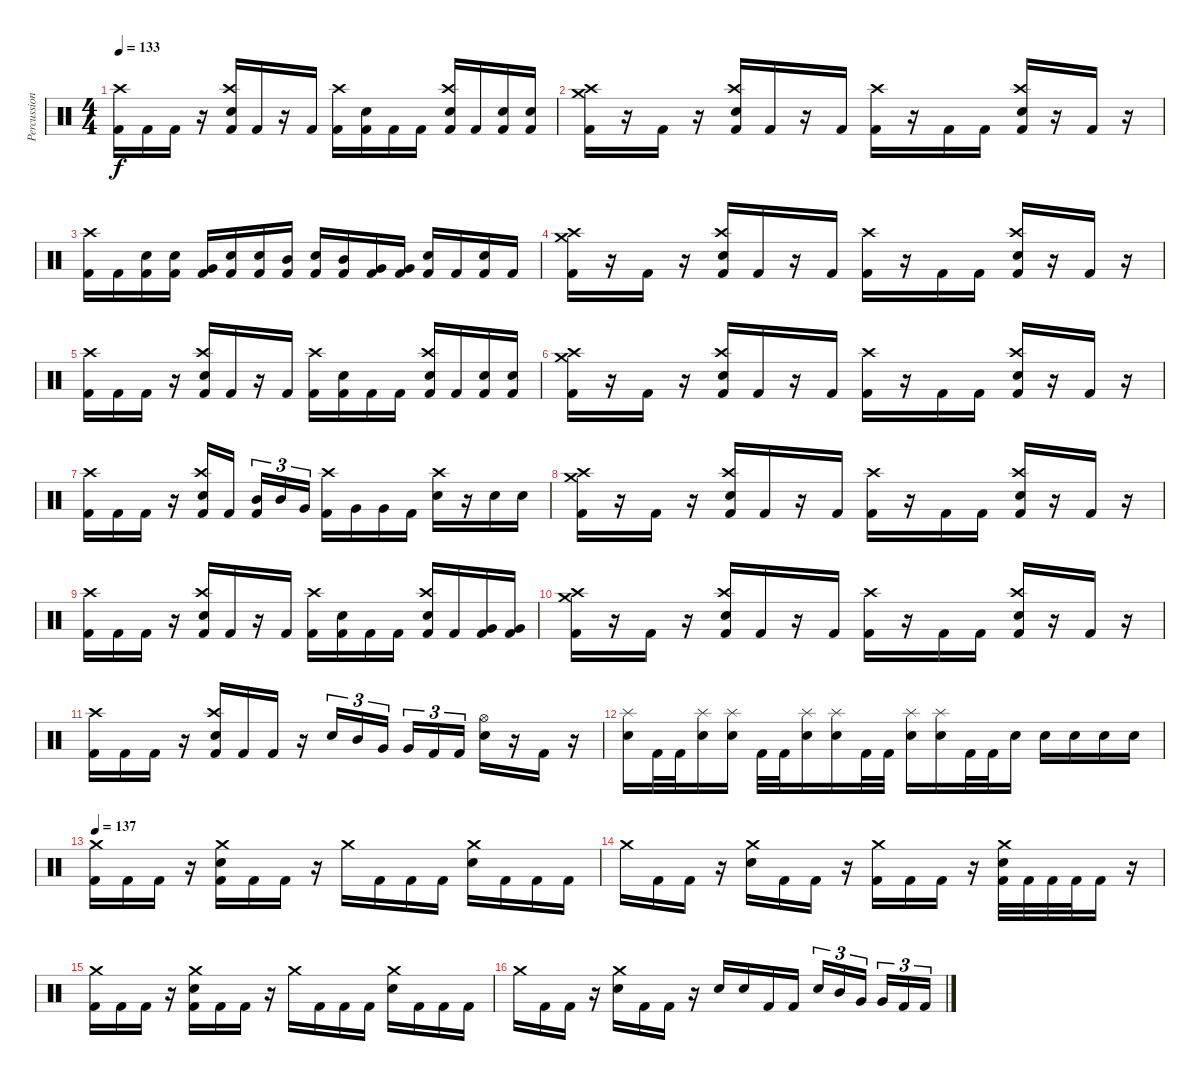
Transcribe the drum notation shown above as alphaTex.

\track ("Percussion" "Percussion") {instrument percussion}
\staff {score}
\articulation defaults
\ts (4 4)
\tempo 133
\clef neutral
\ks c
("Kick (hit) 2" "Crash high (hit)").16{dy f} "Kick (hit) 2".16 "Kick (hit) 2".16 r.16 ("Kick (hit) 2" "Electric Snare (hit)" "Crash high (hit)").16 "Kick (hit) 2".16 r.16 "Kick (hit) 2".16 ("Kick (hit) 2" "Crash high (hit)").16 ("Kick (hit) 2" "Electric Snare (hit)").16 "Kick (hit) 2".16 "Kick (hit) 2".16 ("Kick (hit) 2" "Electric Snare (hit)" "Crash high (hit)").16 "Kick (hit) 2".16 ("Kick (hit) 2" "Electric Snare (hit)").16 ("Kick (hit) 2" "Electric Snare (hit)").16 |
("Kick (hit) 2" "Crash medium (hit)" "Crash high (hit)").16 r.16 "Kick (hit) 2".16 r.16 ("Kick (hit) 2" "Electric Snare (hit)" "Crash high (hit)").16 "Kick (hit) 2".16 r.16 "Kick (hit) 2".16 ("Kick (hit) 2" "Crash high (hit)").16 r.16 "Kick (hit) 2".16 "Kick (hit) 2".16 ("Kick (hit) 2" "Electric Snare (hit)" "Crash high (hit)").16 r.16 "Kick (hit) 2".16 r.16 |
("Kick (hit) 2" "Crash high (hit)").16 "Kick (hit) 2".16 ("Kick (hit) 2" "Electric Snare (hit)").16 ("Kick (hit) 2" "Electric Snare (hit)").16 ("Kick (hit) 2" "Very Low Tom (hit)").16 ("Kick (hit) 2" "Electric Snare (hit)").16 ("Kick (hit) 2" "Electric Snare (hit)").16 ("Kick (hit) 2" "Mid Tom (hit)").16 ("Kick (hit) 2" "Electric Snare (hit)").16 ("Kick (hit) 2" "Mid Tom (hit)").16 ("Kick (hit) 2" "Very Low Tom (hit)").16 ("Kick (hit) 2" "Very Low Tom (hit)").16 ("Kick (hit) 2" "Electric Snare (hit)").16 "Kick (hit) 2".16 ("Kick (hit) 2" "Electric Snare (hit)").16 "Kick (hit) 2".16 |
("Kick (hit) 2" "Crash medium (hit)" "Crash high (hit)").16 r.16 "Kick (hit) 2".16 r.16 ("Kick (hit) 2" "Electric Snare (hit)" "Crash high (hit)").16 "Kick (hit) 2".16 r.16 "Kick (hit) 2".16 ("Kick (hit) 2" "Crash high (hit)").16 r.16 "Kick (hit) 2".16 "Kick (hit) 2".16 ("Kick (hit) 2" "Electric Snare (hit)" "Crash high (hit)").16 r.16 "Kick (hit) 2".16 r.16 |
("Kick (hit) 2" "Crash high (hit)").16 "Kick (hit) 2".16 "Kick (hit) 2".16 r.16 ("Kick (hit) 2" "Electric Snare (hit)" "Crash high (hit)").16 "Kick (hit) 2".16 r.16 "Kick (hit) 2".16 ("Kick (hit) 2" "Crash high (hit)").16 ("Kick (hit) 2" "Electric Snare (hit)").16 "Kick (hit) 2".16 "Kick (hit) 2".16 ("Kick (hit) 2" "Electric Snare (hit)" "Crash high (hit)").16 "Kick (hit) 2".16 ("Kick (hit) 2" "Electric Snare (hit)").16 ("Kick (hit) 2" "Electric Snare (hit)").16 |
("Kick (hit) 2" "Crash medium (hit)" "Crash high (hit)").16 r.16 "Kick (hit) 2".16 r.16 ("Kick (hit) 2" "Electric Snare (hit)" "Crash high (hit)").16 "Kick (hit) 2".16 r.16 "Kick (hit) 2".16 ("Kick (hit) 2" "Crash high (hit)").16 r.16 "Kick (hit) 2".16 "Kick (hit) 2".16 ("Kick (hit) 2" "Electric Snare (hit)" "Crash high (hit)").16 r.16 "Kick (hit) 2".16 r.16 |
("Kick (hit) 2" "Crash high (hit)").16 "Kick (hit) 2".16 "Kick (hit) 2".16 r.16 ("Kick (hit) 2" "Electric Snare (hit)" "Crash high (hit)").16 "Kick (hit) 2".16{beam splitsecondary} ("Kick (hit) 2" "Mid Tom (hit)").16{tu (3 2)} "Mid Tom (hit)".16{tu (3 2)} "Very Low Tom (hit)".16{tu (3 2)} ("Kick (hit) 2" "Crash high (hit)").16 "Very Low Tom (hit)".16 "Very Low Tom (hit)".16 "Kick (hit) 2".16 ("Electric Snare (hit)" "Crash high (hit)").16 r.16 "Electric Snare (hit)".16 "Electric Snare (hit)".16 |
("Kick (hit) 2" "Crash medium (hit)" "Crash high (hit)").16 r.16 "Kick (hit) 2".16 r.16 ("Kick (hit) 2" "Electric Snare (hit)" "Crash high (hit)").16 "Kick (hit) 2".16 r.16 "Kick (hit) 2".16 ("Kick (hit) 2" "Crash high (hit)").16 r.16 "Kick (hit) 2".16 "Kick (hit) 2".16 ("Kick (hit) 2" "Electric Snare (hit)" "Crash high (hit)").16 r.16 "Kick (hit) 2".16 r.16 |
("Kick (hit) 2" "Crash high (hit)").16 "Kick (hit) 2".16 "Kick (hit) 2".16 r.16 ("Kick (hit) 2" "Electric Snare (hit)" "Crash high (hit)").16 "Kick (hit) 2".16 r.16 "Kick (hit) 2".16 ("Kick (hit) 2" "Crash high (hit)").16 ("Kick (hit) 2" "Electric Snare (hit)").16 "Kick (hit) 2".16 "Kick (hit) 2".16 ("Kick (hit) 2" "Electric Snare (hit)" "Crash high (hit)").16 "Kick (hit) 2".16 ("Kick (hit) 2" "Very Low Tom (hit)").16 ("Kick (hit) 2" "Very Low Tom (hit)").16 |
("Kick (hit) 2" "Crash medium (hit)" "Crash high (hit)").16 r.16 "Kick (hit) 2".16 r.16 ("Kick (hit) 2" "Electric Snare (hit)" "Crash high (hit)").16 "Kick (hit) 2".16 r.16 "Kick (hit) 2".16 ("Kick (hit) 2" "Crash high (hit)").16 r.16 "Kick (hit) 2".16 "Kick (hit) 2".16 ("Kick (hit) 2" "Electric Snare (hit)" "Crash high (hit)").16 r.16 "Kick (hit) 2".16 r.16 |
("Kick (hit) 2" "Crash high (hit)").16 "Kick (hit) 2".16 "Kick (hit) 2".16 r.16 ("Kick (hit) 2" "Electric Snare (hit)" "Crash high (hit)").16 "Kick (hit) 2".16 "Kick (hit) 2".16 r.16 "Electric Snare (hit)".16{tu (3 2)} "Mid Tom (hit)".16{tu (3 2)} "Very Low Tom (hit)".16{tu (3 2) beam splitsecondary} "Very Low Tom (hit)".16{tu (3 2)} "Kick (hit) 2".16{tu (3 2)} "Kick (hit) 2".16{tu (3 2)} ("Electric Snare (hit)" "Hi-Hat (open)").16 r.16 "Kick (hit) 2".16 r.16 |
("Electric Snare (hit)" "Splash (hit)").16 "Kick (hit) 2".32 "Kick (hit) 2".32 ("Electric Snare (hit)" "Splash (hit)").16 ("Electric Snare (hit)" "Splash (hit)").16 "Kick (hit) 2".32 "Kick (hit) 2".32 ("Electric Snare (hit)" "Splash (hit)").16 ("Electric Snare (hit)" "Splash (hit)").16 "Kick (hit) 2".32 "Kick (hit) 2".32 ("Electric Snare (hit)" "Splash (hit)").16 ("Electric Snare (hit)" "Splash (hit)").16 "Kick (hit) 2".32 "Kick (hit) 2".32 "Electric Snare (hit)".16 "Electric Snare (hit)".16 "Electric Snare (hit)".16 "Electric Snare (hit)".16 "Electric Snare (hit)".16 |
\tempo 137
("Kick (hit) 2" "Crash medium (hit)").16 "Kick (hit) 2".16 "Kick (hit) 2".16 r.16 ("Kick (hit) 2" "Electric Snare (hit)" "Crash medium (hit)").16 "Kick (hit) 2".16 "Kick (hit) 2".16 r.16 "Crash medium (hit)".16 "Kick (hit) 2".16 "Kick (hit) 2".16 "Kick (hit) 2".16 ("Electric Snare (hit)" "Crash medium (hit)").16 "Kick (hit) 2".16 "Kick (hit) 2".16 "Kick (hit) 2".16 |
"Crash medium (hit)".16 "Kick (hit) 2".16 "Kick (hit) 2".16 r.16 ("Electric Snare (hit)" "Crash medium (hit)").16 "Kick (hit) 2".16 "Kick (hit) 2".16 r.16 ("Kick (hit) 2" "Crash medium (hit)").16 "Kick (hit) 2".16 "Kick (hit) 2".16 r.16 ("Kick (hit) 2" "Electric Snare (hit)" "Crash medium (hit)").32 "Kick (hit) 2".32 "Kick (hit) 2".32 "Kick (hit) 2".32 "Kick (hit) 2".16 r.16 |
("Kick (hit) 2" "Crash medium (hit)").16 "Kick (hit) 2".16 "Kick (hit) 2".16 r.16 ("Kick (hit) 2" "Electric Snare (hit)" "Crash medium (hit)").16 "Kick (hit) 2".16 "Kick (hit) 2".16 r.16 "Crash medium (hit)".16 "Kick (hit) 2".16 "Kick (hit) 2".16 "Kick (hit) 2".16 ("Electric Snare (hit)" "Crash medium (hit)").16 "Kick (hit) 2".16 "Kick (hit) 2".16 "Kick (hit) 2".16 |
"Crash medium (hit)".16 "Kick (hit) 2".16 "Kick (hit) 2".16 r.16 ("Electric Snare (hit)" "Crash medium (hit)").16 "Kick (hit) 2".16 "Kick (hit) 2".16 r.16 "Electric Snare (hit)".16 "Electric Snare (hit)".16 "Kick (hit) 2".16 "Kick (hit) 2".16 "Electric Snare (hit)".16{tu (3 2)} "Mid Tom (hit)".16{tu (3 2)} "Very Low Tom (hit)".16{tu (3 2) beam splitsecondary} "Very Low Tom (hit)".16{tu (3 2)} "Kick (hit) 2".16{tu (3 2)} "Kick (hit) 2".16{tu (3 2)}
